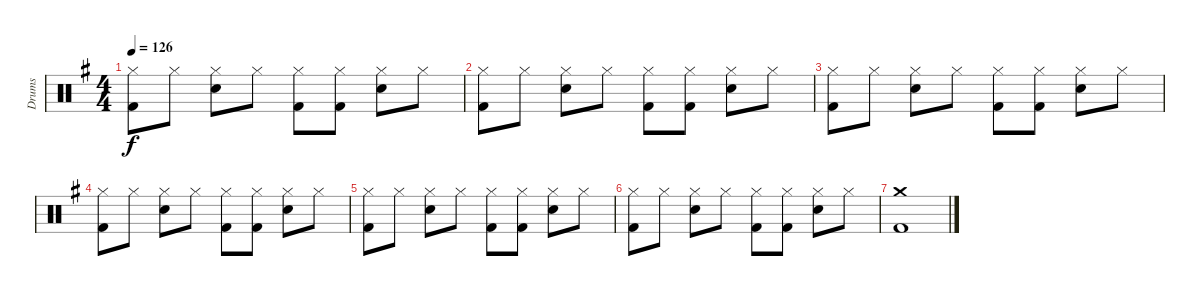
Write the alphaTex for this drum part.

\track ("Drums" "Drums") {instrument percussion}
\staff {score}
\articulation defaults
\ts (4 4)
\tempo 126
\clef neutral
\ks g
("Hi-Hat (closed)" "Kick (hit) 2").8{dy f} "Hi-Hat (closed)".8 ("Hi-Hat (closed)" "Snare (hit) 2").8 "Hi-Hat (closed)".8 ("Hi-Hat (closed)" "Kick (hit) 2").8 ("Hi-Hat (closed)" "Kick (hit) 2").8 ("Hi-Hat (closed)" "Snare (hit) 2").8 "Hi-Hat (closed)".8 |
("Hi-Hat (closed)" "Kick (hit) 2").8 "Hi-Hat (closed)".8 ("Hi-Hat (closed)" "Snare (hit) 2").8 "Hi-Hat (closed)".8 ("Hi-Hat (closed)" "Kick (hit) 2").8 ("Hi-Hat (closed)" "Kick (hit) 2").8 ("Hi-Hat (closed)" "Snare (hit) 2").8 "Hi-Hat (closed)".8 |
("Hi-Hat (closed)" "Kick (hit) 2").8 "Hi-Hat (closed)".8 ("Hi-Hat (closed)" "Snare (hit) 2").8 "Hi-Hat (closed)".8 ("Hi-Hat (closed)" "Kick (hit) 2").8 ("Hi-Hat (closed)" "Kick (hit) 2").8 ("Hi-Hat (closed)" "Snare (hit) 2").8 "Hi-Hat (closed)".8 |
("Hi-Hat (closed)" "Kick (hit) 2").8 "Hi-Hat (closed)".8 ("Hi-Hat (closed)" "Snare (hit) 2").8 "Hi-Hat (closed)".8 ("Hi-Hat (closed)" "Kick (hit) 2").8 ("Hi-Hat (closed)" "Kick (hit) 2").8 ("Hi-Hat (closed)" "Snare (hit) 2").8 "Hi-Hat (closed)".8 |
("Hi-Hat (closed)" "Kick (hit) 2").8 "Hi-Hat (closed)".8 ("Hi-Hat (closed)" "Snare (hit) 2").8 "Hi-Hat (closed)".8 ("Hi-Hat (closed)" "Kick (hit) 2").8 ("Hi-Hat (closed)" "Kick (hit) 2").8 ("Hi-Hat (closed)" "Snare (hit) 2").8 "Hi-Hat (closed)".8 |
("Hi-Hat (closed)" "Kick (hit) 2").8 "Hi-Hat (closed)".8 ("Hi-Hat (closed)" "Snare (hit) 2").8 "Hi-Hat (closed)".8 ("Hi-Hat (closed)" "Kick (hit) 2").8 ("Hi-Hat (closed)" "Kick (hit) 2").8 ("Hi-Hat (closed)" "Snare (hit) 2").8 "Hi-Hat (closed)".8 |
("Crash medium (hit)" "Kick (hit) 2").1
